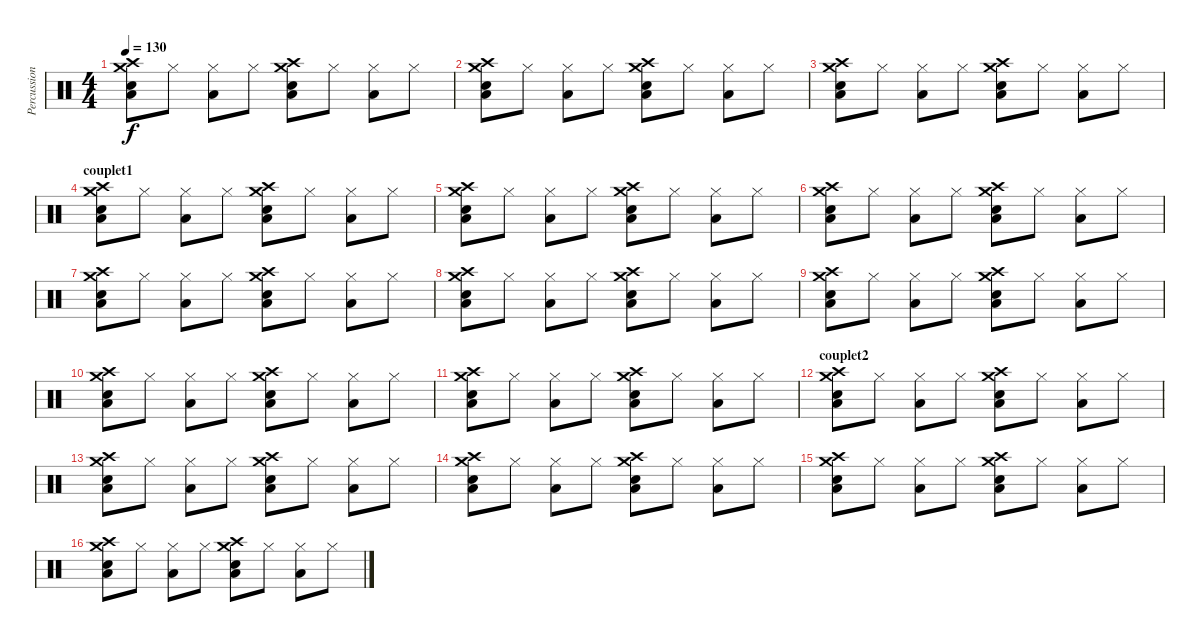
\track ("Percussions" "Percussion") {instrument percussion}
\staff {score}
\articulation defaults
\ts (4 4)
\tempo 130
\clef neutral
\ks c
("Low Floor Tom (hit)" "Snare (hit) 2" "Crash high (hit)" "Crash medium (hit)").8{dy f} "Hi-Hat (closed)".8 ("Low Floor Tom (hit)" "Hi-Hat (closed)").8 "Hi-Hat (closed)".8 ("Low Floor Tom (hit)" "Snare (hit) 2" "Crash high (hit)" "Crash medium (hit)").8 "Hi-Hat (closed)".8 ("Low Floor Tom (hit)" "Hi-Hat (closed)").8 "Hi-Hat (closed)".8 |
("Low Floor Tom (hit)" "Snare (hit) 2" "Crash high (hit)" "Crash medium (hit)").8 "Hi-Hat (closed)".8 ("Low Floor Tom (hit)" "Hi-Hat (closed)").8 "Hi-Hat (closed)".8 ("Low Floor Tom (hit)" "Snare (hit) 2" "Crash high (hit)" "Crash medium (hit)").8 "Hi-Hat (closed)".8 ("Low Floor Tom (hit)" "Hi-Hat (closed)").8 "Hi-Hat (closed)".8 |
("Low Floor Tom (hit)" "Snare (hit) 2" "Crash high (hit)" "Crash medium (hit)").8 "Hi-Hat (closed)".8 ("Low Floor Tom (hit)" "Hi-Hat (closed)").8 "Hi-Hat (closed)".8 ("Low Floor Tom (hit)" "Snare (hit) 2" "Crash high (hit)" "Crash medium (hit)").8 "Hi-Hat (closed)".8 ("Low Floor Tom (hit)" "Hi-Hat (closed)").8 "Hi-Hat (closed)".8 |
\section ("" "couplet1")
("Low Floor Tom (hit)" "Snare (hit) 2" "Crash high (hit)" "Crash medium (hit)").8 "Hi-Hat (closed)".8 ("Low Floor Tom (hit)" "Hi-Hat (closed)").8 "Hi-Hat (closed)".8 ("Low Floor Tom (hit)" "Snare (hit) 2" "Crash high (hit)" "Crash medium (hit)").8 "Hi-Hat (closed)".8 ("Low Floor Tom (hit)" "Hi-Hat (closed)").8 "Hi-Hat (closed)".8 |
("Low Floor Tom (hit)" "Snare (hit) 2" "Crash high (hit)" "Crash medium (hit)").8 "Hi-Hat (closed)".8 ("Low Floor Tom (hit)" "Hi-Hat (closed)").8 "Hi-Hat (closed)".8 ("Low Floor Tom (hit)" "Snare (hit) 2" "Crash high (hit)" "Crash medium (hit)").8 "Hi-Hat (closed)".8 ("Low Floor Tom (hit)" "Hi-Hat (closed)").8 "Hi-Hat (closed)".8 |
("Low Floor Tom (hit)" "Snare (hit) 2" "Crash high (hit)" "Crash medium (hit)").8 "Hi-Hat (closed)".8 ("Low Floor Tom (hit)" "Hi-Hat (closed)").8 "Hi-Hat (closed)".8 ("Low Floor Tom (hit)" "Snare (hit) 2" "Crash high (hit)" "Crash medium (hit)").8 "Hi-Hat (closed)".8 ("Low Floor Tom (hit)" "Hi-Hat (closed)").8 "Hi-Hat (closed)".8 |
("Low Floor Tom (hit)" "Snare (hit) 2" "Crash high (hit)" "Crash medium (hit)").8 "Hi-Hat (closed)".8 ("Low Floor Tom (hit)" "Hi-Hat (closed)").8 "Hi-Hat (closed)".8 ("Low Floor Tom (hit)" "Snare (hit) 2" "Crash high (hit)" "Crash medium (hit)").8 "Hi-Hat (closed)".8 ("Low Floor Tom (hit)" "Hi-Hat (closed)").8 "Hi-Hat (closed)".8 |
("Low Floor Tom (hit)" "Snare (hit) 2" "Crash high (hit)" "Crash medium (hit)").8 "Hi-Hat (closed)".8 ("Low Floor Tom (hit)" "Hi-Hat (closed)").8 "Hi-Hat (closed)".8 ("Low Floor Tom (hit)" "Snare (hit) 2" "Crash high (hit)" "Crash medium (hit)").8 "Hi-Hat (closed)".8 ("Low Floor Tom (hit)" "Hi-Hat (closed)").8 "Hi-Hat (closed)".8 |
("Low Floor Tom (hit)" "Snare (hit) 2" "Crash high (hit)" "Crash medium (hit)").8 "Hi-Hat (closed)".8 ("Low Floor Tom (hit)" "Hi-Hat (closed)").8 "Hi-Hat (closed)".8 ("Low Floor Tom (hit)" "Snare (hit) 2" "Crash high (hit)" "Crash medium (hit)").8 "Hi-Hat (closed)".8 ("Low Floor Tom (hit)" "Hi-Hat (closed)").8 "Hi-Hat (closed)".8 |
("Low Floor Tom (hit)" "Snare (hit) 2" "Crash high (hit)" "Crash medium (hit)").8 "Hi-Hat (closed)".8 ("Low Floor Tom (hit)" "Hi-Hat (closed)").8 "Hi-Hat (closed)".8 ("Low Floor Tom (hit)" "Snare (hit) 2" "Crash high (hit)" "Crash medium (hit)").8 "Hi-Hat (closed)".8 ("Low Floor Tom (hit)" "Hi-Hat (closed)").8 "Hi-Hat (closed)".8 |
("Low Floor Tom (hit)" "Snare (hit) 2" "Crash high (hit)" "Crash medium (hit)").8 "Hi-Hat (closed)".8 ("Low Floor Tom (hit)" "Hi-Hat (closed)").8 "Hi-Hat (closed)".8 ("Low Floor Tom (hit)" "Snare (hit) 2" "Crash high (hit)" "Crash medium (hit)").8 "Hi-Hat (closed)".8 ("Low Floor Tom (hit)" "Hi-Hat (closed)").8 "Hi-Hat (closed)".8 |
\section ("" "couplet2")
("Low Floor Tom (hit)" "Snare (hit) 2" "Crash high (hit)" "Crash medium (hit)").8 "Hi-Hat (closed)".8 ("Low Floor Tom (hit)" "Hi-Hat (closed)").8 "Hi-Hat (closed)".8 ("Low Floor Tom (hit)" "Snare (hit) 2" "Crash high (hit)" "Crash medium (hit)").8 "Hi-Hat (closed)".8 ("Low Floor Tom (hit)" "Hi-Hat (closed)").8 "Hi-Hat (closed)".8 |
("Low Floor Tom (hit)" "Snare (hit) 2" "Crash high (hit)" "Crash medium (hit)").8 "Hi-Hat (closed)".8 ("Low Floor Tom (hit)" "Hi-Hat (closed)").8 "Hi-Hat (closed)".8 ("Low Floor Tom (hit)" "Snare (hit) 2" "Crash high (hit)" "Crash medium (hit)").8 "Hi-Hat (closed)".8 ("Low Floor Tom (hit)" "Hi-Hat (closed)").8 "Hi-Hat (closed)".8 |
("Low Floor Tom (hit)" "Snare (hit) 2" "Crash high (hit)" "Crash medium (hit)").8 "Hi-Hat (closed)".8 ("Low Floor Tom (hit)" "Hi-Hat (closed)").8 "Hi-Hat (closed)".8 ("Low Floor Tom (hit)" "Snare (hit) 2" "Crash high (hit)" "Crash medium (hit)").8 "Hi-Hat (closed)".8 ("Low Floor Tom (hit)" "Hi-Hat (closed)").8 "Hi-Hat (closed)".8 |
("Low Floor Tom (hit)" "Snare (hit) 2" "Crash high (hit)" "Crash medium (hit)").8 "Hi-Hat (closed)".8 ("Low Floor Tom (hit)" "Hi-Hat (closed)").8 "Hi-Hat (closed)".8 ("Low Floor Tom (hit)" "Snare (hit) 2" "Crash high (hit)" "Crash medium (hit)").8 "Hi-Hat (closed)".8 ("Low Floor Tom (hit)" "Hi-Hat (closed)").8 "Hi-Hat (closed)".8 |
("Low Floor Tom (hit)" "Snare (hit) 2" "Crash high (hit)" "Crash medium (hit)").8 "Hi-Hat (closed)".8 ("Low Floor Tom (hit)" "Hi-Hat (closed)").8 "Hi-Hat (closed)".8 ("Low Floor Tom (hit)" "Snare (hit) 2" "Crash high (hit)" "Crash medium (hit)").8 "Hi-Hat (closed)".8 ("Low Floor Tom (hit)" "Hi-Hat (closed)").8 "Hi-Hat (closed)".8
